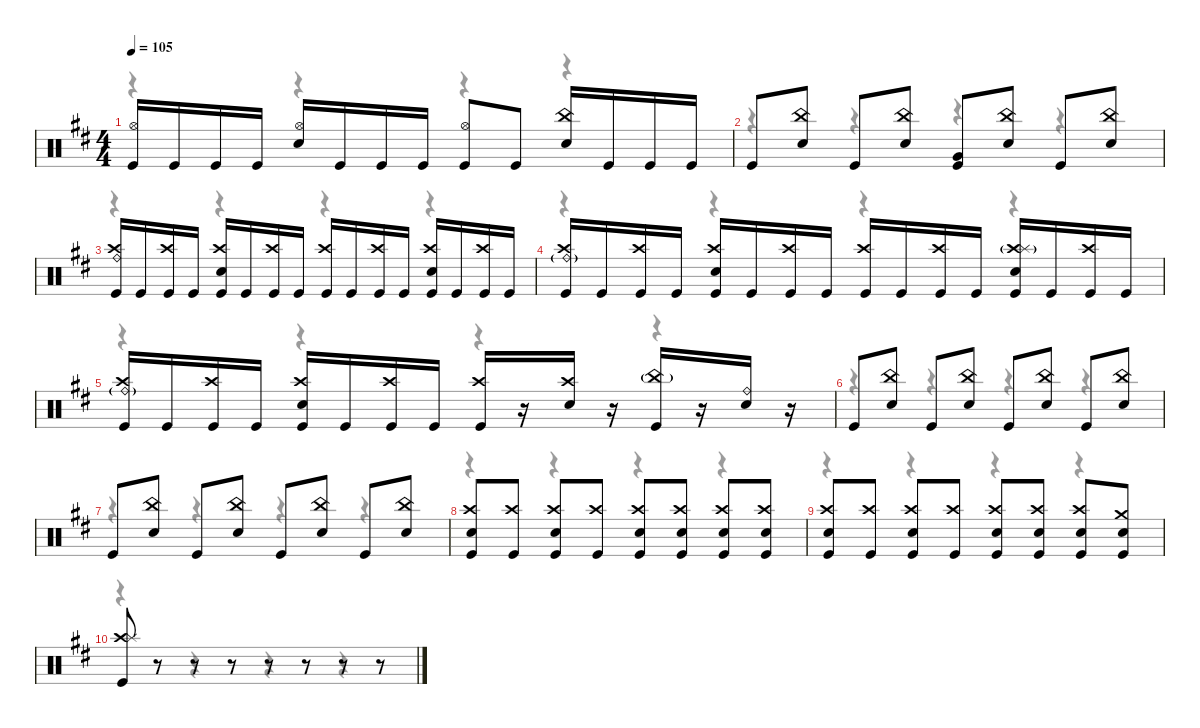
\defaultSystemsLayout 4
\hideDynamics
\bracketExtendMode nobrackets
\singleTrackTrackNamePolicy hidden
\multiTrackTrackNamePolicy hidden
\firstSystemTrackNameMode fullname
\firstSystemTrackNameOrientation horizontal
\otherSystemsTrackNameOrientation horizontal
\track ("Drums" "drm.") {instrument percussion}
\staff {score}
\articulation defaults
\voice
\ts (4 4)
\tempo 105
\clef neutral
\ks bminor
("Hi-Hat (open)"{acc forcenatural} "Kick (hit)"{acc forcenatural}).16{dy mp beam Up} "Kick (hit)"{acc forcenatural}.16{dy f beam Up} "Kick (hit)"{acc forcenatural}.16{beam Up} "Kick (hit)"{acc forcenatural}.16{beam Up} ("Hi-Hat (open)"{acc forcenatural} "Snare (hit) 2"{acc forcenatural}).16{dy mp beam Up} "Kick (hit)"{acc forcenatural}.16{dy f beam Up} "Kick (hit)"{acc forcenatural}.16{beam Up} "Kick (hit)"{acc forcenatural}.16{beam Up} ("Hi-Hat (open)"{acc forcenatural} "Kick (hit)"{acc forcenatural}).8{dy mp beam Up} "Kick (hit)"{acc forcenatural}.8{dy f beam Up} ("China (hit)"{acc forcenatural} "Snare (hit) 2"{acc forcenatural}).16{dy mf beam Up} "Kick (hit)"{acc forcenatural}.16{dy f beam Up} "Kick (hit)"{acc forcenatural}.16{beam Up} "Kick (hit)"{acc forcenatural}.16{beam Up} |
"Kick (hit)"{acc forcenatural}.8{beam Up} ("China (hit)"{acc forcenatural} "Snare (hit) 2"{acc forcenatural}).8{beam Up} "Kick (hit)"{acc forcenatural}.8{beam Up} ("China (hit)"{acc forcenatural} "Snare (hit) 2"{acc forcenatural}).8{beam Up} ("Very Low Tom (hit)"{acc forcenatural} "Kick (hit)"{acc forcenatural}).8{beam Up} ("China (hit)"{acc forcenatural} "Snare (hit) 2"{acc forcenatural}).8{beam Up} "Kick (hit)"{acc forcenatural}.8{beam Up} ("China (hit)"{acc forcenatural} "Snare (hit) 2"{acc forcenatural}).8{beam Up} |
("Ride (bell)"{acc forcenatural} "Crash high (hit)"{acc forcenatural} "Kick (hit)"{acc forcenatural}).16{dy mp beam Up} "Kick (hit)"{acc forcenatural}.16{dy f beam Up} ("Crash high (hit)"{acc forcenatural} "Kick (hit)"{acc forcenatural}).16{dy pp beam Up} "Kick (hit)"{acc forcenatural}.16{dy f beam Up} ("Crash high (hit)"{acc forcenatural} "Snare (hit) 2"{acc forcenatural} "Kick (hit)"{acc forcenatural}).16{dy mp beam Up} "Kick (hit)"{acc forcenatural}.16{dy f beam Up} ("Crash high (hit)"{acc forcenatural} "Kick (hit)"{acc forcenatural}).16{dy pp beam Up} "Kick (hit)"{acc forcenatural}.16{dy f beam Up} ("Crash high (hit)"{acc forcenatural} "Kick (hit)"{acc forcenatural}).16{dy mp beam Up} "Kick (hit)"{acc forcenatural}.16{dy f beam Up} ("Crash high (hit)"{acc forcenatural} "Kick (hit)"{acc forcenatural}).16{dy pp beam Up} "Kick (hit)"{acc forcenatural}.16{dy f beam Up} ("Crash high (hit)"{acc forcenatural} "Snare (hit) 2"{acc forcenatural} "Kick (hit)"{acc forcenatural}).16{dy mp beam Up} "Kick (hit)"{acc forcenatural}.16{dy f beam Up} ("Crash high (hit)"{acc forcenatural} "Kick (hit)"{acc forcenatural}).16{dy pp beam Up} "Kick (hit)"{acc forcenatural}.16{dy f beam Up} |
("Ride (bell)"{g acc forcenatural} "Crash high (hit)"{acc forcenatural} "Kick (hit)"{acc forcenatural}).16{dy mp beam Up} "Kick (hit)"{acc forcenatural}.16{dy f beam Up} ("Crash high (hit)"{acc forcenatural} "Kick (hit)"{acc forcenatural}).16{dy pp beam Up} "Kick (hit)"{acc forcenatural}.16{dy f beam Up} ("Crash high (hit)"{acc forcenatural} "Snare (hit) 2"{acc forcenatural} "Kick (hit)"{acc forcenatural}).16{dy mp beam Up} "Kick (hit)"{acc forcenatural}.16{dy f beam Up} ("Crash high (hit)"{acc forcenatural} "Kick (hit)"{acc forcenatural}).16{dy pp beam Up} "Kick (hit)"{acc forcenatural}.16{dy f beam Up} ("Crash high (hit)"{acc forcenatural} "Kick (hit)"{acc forcenatural}).16{dy mp beam Up} "Kick (hit)"{acc forcenatural}.16{dy f beam Up} ("Crash high (hit)"{acc forcenatural} "Kick (hit)"{acc forcenatural}).16{dy pp beam Up} "Kick (hit)"{acc forcenatural}.16{dy f beam Up} ("Crash high (hit)"{acc forcenatural} "Splash (hit)"{g acc forcenatural} "Snare (hit) 2"{acc forcenatural} "Kick (hit)"{acc forcenatural}).16{dy mp beam Up} "Kick (hit)"{acc forcenatural}.16{dy f beam Up} ("Crash high (hit)"{acc forcenatural} "Kick (hit)"{acc forcenatural}).16{dy pp beam Up} "Kick (hit)"{acc forcenatural}.16{dy f beam Up} |
("Ride (bell)"{g acc forcenatural} "Crash high (hit)"{acc forcenatural} "Kick (hit)"{acc forcenatural}).16{dy mp beam Up} "Kick (hit)"{acc forcenatural}.16{dy f beam Up} ("Crash high (hit)"{acc forcenatural} "Kick (hit)"{acc forcenatural}).16{dy pp beam Up} "Kick (hit)"{acc forcenatural}.16{dy f beam Up} ("Crash high (hit)"{acc forcenatural} "Snare (hit) 2"{acc forcenatural} "Kick (hit)"{acc forcenatural}).16{dy mp beam Up} "Kick (hit)"{acc forcenatural}.16{dy f beam Up} ("Crash high (hit)"{acc forcenatural} "Kick (hit)"{acc forcenatural}).16{dy pp beam Up} "Kick (hit)"{acc forcenatural}.16{dy f beam Up} ("Crash high (hit)"{acc forcenatural} "Kick (hit)"{acc forcenatural}).16{dy mp beam Up} r.16{beam Up} ("Crash high (hit)"{acc forcenatural} "Snare (hit) 2"{acc forcenatural}).16{dy pp beam Up} r.16{beam Up} ("China (hit)"{g acc forcenatural} "Kick (hit)"{acc forcenatural}).16{dy f beam Up} r.16{beam Up} ("Ride (bell)"{acc forcenatural} "Snare (hit) 2"{acc forcenatural}).16{dy p beam Up} r.16{beam Up} |
"Kick (hit)"{acc forcenatural}.8{dy f beam Up} ("China (hit)"{acc forcenatural} "Snare (hit) 2"{acc forcenatural}).8{dy mf beam Up} "Kick (hit)"{acc forcenatural}.8{dy f beam Up} ("China (hit)"{acc forcenatural} "Snare (hit) 2"{acc forcenatural}).8{dy mf beam Up} "Kick (hit)"{acc forcenatural}.8{dy f beam Up} ("China (hit)"{acc forcenatural} "Snare (hit) 2"{acc forcenatural}).8{dy mf beam Up} "Kick (hit)"{acc forcenatural}.8{dy f beam Up} ("China (hit)"{acc forcenatural} "Snare (hit) 2"{acc forcenatural}).8{dy mf beam Up} |
"Kick (hit)"{acc forcenatural}.8{dy f beam Up} ("China (hit)"{acc forcenatural} "Snare (hit) 2"{acc forcenatural}).8{dy mf beam Up} "Kick (hit)"{acc forcenatural}.8{dy f beam Up} ("China (hit)"{acc forcenatural} "Snare (hit) 2"{acc forcenatural}).8{dy mf beam Up} "Kick (hit)"{acc forcenatural}.8{dy f beam Up} ("China (hit)"{acc forcenatural} "Snare (hit) 2"{acc forcenatural}).8{dy mf beam Up} "Kick (hit)"{acc forcenatural}.8{dy f beam Up} ("China (hit)"{acc forcenatural} "Snare (hit) 2"{acc forcenatural}).8{dy mf beam Up} |
("Crash high (hit)"{acc forcenatural} "Snare (hit) 2"{acc forcenatural} "Kick (hit)"{acc forcenatural}).8{beam Up} ("Crash high (hit)"{acc forcenatural} "Kick (hit)"{acc forcenatural}).8{dy mp beam Up} ("Crash high (hit)"{acc forcenatural} "Snare (hit) 2"{acc forcenatural} "Kick (hit)"{acc forcenatural}).8{beam Up} ("Crash high (hit)"{acc forcenatural} "Kick (hit)"{acc forcenatural}).8{dy p beam Up} ("Crash high (hit)"{acc forcenatural} "Snare (hit) 2"{acc forcenatural} "Kick (hit)"{acc forcenatural}).8{dy mp beam Up} ("Crash high (hit)"{acc forcenatural} "Snare (hit) 2"{acc forcenatural} "Kick (hit)"{acc forcenatural}).8{dy p beam Up} ("Crash high (hit)"{acc forcenatural} "Snare (hit) 2"{acc forcenatural} "Kick (hit)"{acc forcenatural}).8{dy mp beam Up} ("Crash high (hit)"{acc forcenatural} "Snare (hit) 2"{acc forcenatural} "Kick (hit)"{acc forcenatural}).8{dy p beam Up} |
("Crash high (hit)"{acc forcenatural} "Snare (hit) 2"{acc forcenatural} "Kick (hit)"{acc forcenatural}).8{dy mf beam Up} ("Crash high (hit)"{acc forcenatural} "Kick (hit)"{acc forcenatural}).8{dy mp beam Up} ("Crash high (hit)"{acc forcenatural} "Snare (hit) 2"{acc forcenatural} "Kick (hit)"{acc forcenatural}).8{beam Up} ("Crash high (hit)"{acc forcenatural} "Kick (hit)"{acc forcenatural}).8{dy p beam Up} ("Crash high (hit)"{acc forcenatural} "Snare (hit) 2"{acc forcenatural} "Kick (hit)"{acc forcenatural}).8{dy mp beam Up} ("Crash high (hit)"{acc forcenatural} "Snare (hit) 2"{acc forcenatural} "Kick (hit)"{acc forcenatural}).8{dy p beam Up} ("Crash high (hit)"{acc forcenatural} "Snare (hit) 2"{acc forcenatural} "Kick (hit)"{acc forcenatural}).8{dy mp beam Up} ("Crash medium (hit)"{acc forcenatural} "Snare (hit) 2"{acc forcenatural} "Kick (hit)"{acc forcenatural}).8{beam Up} |
("Crash high (hit)"{acc forcenatural} "Splash (hit)"{acc forcenatural} "Kick (hit)"{acc forcenatural}).8{dy mf beam Up} r.8{beam Up} r.8{beam Up} r.8{beam Up} r.8{beam Up} r.8{beam Up} r.8{beam Up} r.8{beam Up}
\voice
\clef neutral
\ottava regular
\simile none
\ks bminor
r.4{dy mf beam Down} r.4{beam Down} r.4{beam Down} r.4{beam Down} |
r.4{beam Down} r.4{beam Down} r.4{beam Down} r.4{beam Down} |
r.4{beam Down} r.4{beam Down} r.4{beam Down} r.4{beam Down} |
r.4{beam Down} r.4{beam Down} r.4{beam Down} r.4{beam Down} |
r.4{beam Down} r.4{beam Down} r.4{beam Down} r.4{beam Down} |
r.4{beam Down} r.4{beam Down} r.4{beam Down} r.4{beam Down} |
r.4{beam Down} r.4{beam Down} r.4{beam Down} r.4{beam Down} |
r.4{beam Down} r.4{beam Down} r.4{beam Down} r.4{beam Down} |
r.4{beam Down} r.4{beam Down} r.4{beam Down} r.4{beam Down} |
r.4{beam Down} r.4{beam Down} r.4{beam Down} r.4{beam Down}
